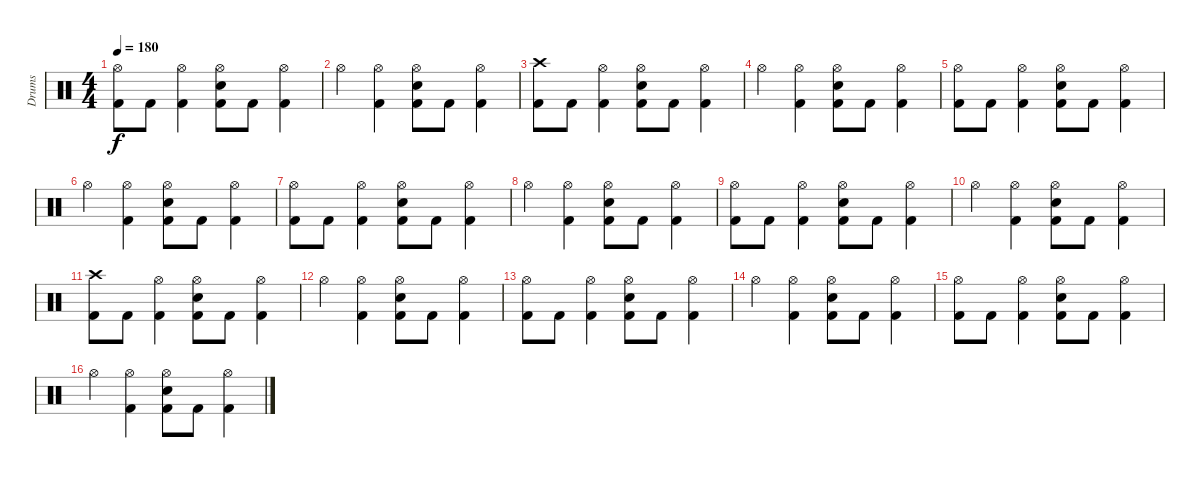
\track ("Drums" "Drums") {instrument percussion}
\staff {score}
\articulation defaults
\ts (4 4)
\tempo 180
\clef neutral
\ks c
("Hi-Hat (open)" "Kick (hit) 2").8{dy f} "Kick (hit) 2".8 ("Hi-Hat (open)" "Kick (hit) 2").4 ("Hi-Hat (open)" "Snare (hit) 2" "Kick (hit) 2").8 "Kick (hit) 2".8 ("Hi-Hat (open)" "Kick (hit) 2").4 |
"Hi-Hat (open)".4 ("Hi-Hat (open)" "Kick (hit) 2").4 ("Hi-Hat (open)" "Snare (hit) 2" "Kick (hit) 2").8 "Kick (hit) 2".8 ("Hi-Hat (open)" "Kick (hit) 2").4 |
("Crash high (hit)" "Kick (hit) 2").8 "Kick (hit) 2".8 ("Hi-Hat (open)" "Kick (hit) 2").4 ("Hi-Hat (open)" "Snare (hit) 2" "Kick (hit) 2").8 "Kick (hit) 2".8 ("Hi-Hat (open)" "Kick (hit) 2").4 |
"Hi-Hat (open)".4 ("Hi-Hat (open)" "Kick (hit) 2").4 ("Hi-Hat (open)" "Snare (hit) 2" "Kick (hit) 2").8 "Kick (hit) 2".8 ("Hi-Hat (open)" "Kick (hit) 2").4 |
("Hi-Hat (open)" "Kick (hit) 2").8 "Kick (hit) 2".8 ("Hi-Hat (open)" "Kick (hit) 2").4 ("Hi-Hat (open)" "Snare (hit) 2" "Kick (hit) 2").8 "Kick (hit) 2".8 ("Hi-Hat (open)" "Kick (hit) 2").4 |
"Hi-Hat (open)".4 ("Hi-Hat (open)" "Kick (hit) 2").4 ("Hi-Hat (open)" "Snare (hit) 2" "Kick (hit) 2").8 "Kick (hit) 2".8 ("Hi-Hat (open)" "Kick (hit) 2").4 |
("Hi-Hat (open)" "Kick (hit) 2").8 "Kick (hit) 2".8 ("Hi-Hat (open)" "Kick (hit) 2").4 ("Hi-Hat (open)" "Snare (hit) 2" "Kick (hit) 2").8 "Kick (hit) 2".8 ("Hi-Hat (open)" "Kick (hit) 2").4 |
"Hi-Hat (open)".4 ("Hi-Hat (open)" "Kick (hit) 2").4 ("Hi-Hat (open)" "Snare (hit) 2" "Kick (hit) 2").8 "Kick (hit) 2".8 ("Hi-Hat (open)" "Kick (hit) 2").4 |
("Hi-Hat (open)" "Kick (hit) 2").8 "Kick (hit) 2".8 ("Hi-Hat (open)" "Kick (hit) 2").4 ("Hi-Hat (open)" "Snare (hit) 2" "Kick (hit) 2").8 "Kick (hit) 2".8 ("Hi-Hat (open)" "Kick (hit) 2").4 |
"Hi-Hat (open)".4 ("Hi-Hat (open)" "Kick (hit) 2").4 ("Hi-Hat (open)" "Snare (hit) 2" "Kick (hit) 2").8 "Kick (hit) 2".8 ("Hi-Hat (open)" "Kick (hit) 2").4 |
("Crash high (hit)" "Kick (hit) 2").8 "Kick (hit) 2".8 ("Hi-Hat (open)" "Kick (hit) 2").4 ("Hi-Hat (open)" "Snare (hit) 2" "Kick (hit) 2").8 "Kick (hit) 2".8 ("Hi-Hat (open)" "Kick (hit) 2").4 |
"Hi-Hat (open)".4 ("Hi-Hat (open)" "Kick (hit) 2").4 ("Hi-Hat (open)" "Snare (hit) 2" "Kick (hit) 2").8 "Kick (hit) 2".8 ("Hi-Hat (open)" "Kick (hit) 2").4 |
("Hi-Hat (open)" "Kick (hit) 2").8 "Kick (hit) 2".8 ("Hi-Hat (open)" "Kick (hit) 2").4 ("Hi-Hat (open)" "Snare (hit) 2" "Kick (hit) 2").8 "Kick (hit) 2".8 ("Hi-Hat (open)" "Kick (hit) 2").4 |
"Hi-Hat (open)".4 ("Hi-Hat (open)" "Kick (hit) 2").4 ("Hi-Hat (open)" "Snare (hit) 2" "Kick (hit) 2").8 "Kick (hit) 2".8 ("Hi-Hat (open)" "Kick (hit) 2").4 |
("Hi-Hat (open)" "Kick (hit) 2").8 "Kick (hit) 2".8 ("Hi-Hat (open)" "Kick (hit) 2").4 ("Hi-Hat (open)" "Snare (hit) 2" "Kick (hit) 2").8 "Kick (hit) 2".8 ("Hi-Hat (open)" "Kick (hit) 2").4 |
"Hi-Hat (open)".4 ("Hi-Hat (open)" "Kick (hit) 2").4 ("Hi-Hat (open)" "Snare (hit) 2" "Kick (hit) 2").8 "Kick (hit) 2".8 ("Hi-Hat (open)" "Kick (hit) 2").4
